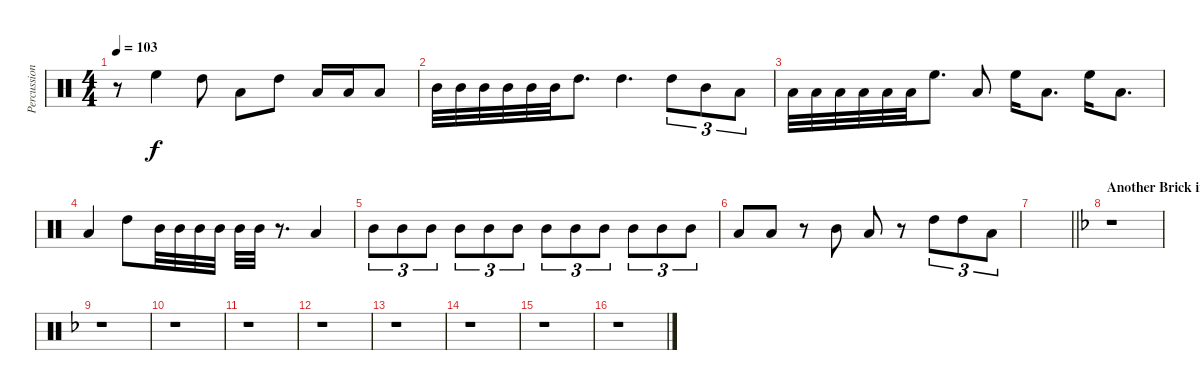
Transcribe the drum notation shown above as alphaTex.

\track ("Percussions 2" "Percussion") {instrument percussion}
\staff {score}
\articulation defaults
\ts (4 4)
\tempo 103
\clef neutral
\ks c
r.8{dy f} "High Floor Tom (hit)".4 "High Tom (hit)".8 "Low Tom (hit)".8 "High Tom (hit)".8 "Low Tom (hit)".16 "Low Tom (hit)".16 "Low Tom (hit)".8 |
"Mid Tom (hit)".32 "Mid Tom (hit)".32 "Mid Tom (hit)".32 "Mid Tom (hit)".32 "Mid Tom (hit)".32 "Mid Tom (hit)".32 "High Tom (hit)".8{d} "High Tom (hit)".4{d} "High Tom (hit)".8{tu (3 2)} "Mid Tom (hit)".8{tu (3 2)} "Low Tom (hit)".8{tu (3 2)} |
"Low Floor Tom (hit)".32 "Low Floor Tom (hit)".32 "Low Floor Tom (hit)".32 "Low Floor Tom (hit)".32 "Low Floor Tom (hit)".32 "Low Floor Tom (hit)".32 "High Floor Tom (hit)".8{d} "Low Tom (hit)".8 "High Floor Tom (hit)".16 "Low Tom (hit)".8{d} "High Floor Tom (hit)".16 "Low Tom (hit)".8{d} |
"Low Tom (hit)".4 "High Tom (hit)".8 "Mid Tom (hit)".32 "Mid Tom (hit)".32 "Mid Tom (hit)".32 "Mid Tom (hit)".32 "Mid Tom (hit)".32 "Mid Tom (hit)".32 r.8{d} "Low Tom (hit)".4 |
"Mid Tom (hit)".8{tu (3 2)} "Mid Tom (hit)".8{tu (3 2)} "Mid Tom (hit)".8{tu (3 2)} "Mid Tom (hit)".8{tu (3 2)} "Mid Tom (hit)".8{tu (3 2)} "Mid Tom (hit)".8{tu (3 2)} "Mid Tom (hit)".8{tu (3 2)} "Mid Tom (hit)".8{tu (3 2)} "Mid Tom (hit)".8{tu (3 2)} "Mid Tom (hit)".8{tu (3 2)} "Mid Tom (hit)".8{tu (3 2)} "Mid Tom (hit)".8{tu (3 2)} |
"Low Tom (hit)".8 "Low Tom (hit)".8 r.8 "Mid Tom (hit)".8 "Low Tom (hit)".8 r.8 "High Tom (hit)".8{tu (3 2)} "High Tom (hit)".8{tu (3 2)} "Low Tom (hit)".8{tu (3 2)} |
\barLineRight lightlight
|
\section ("" "Another Brick in the Wall. part 2")
\ks dminor
r.1 |
r.1 |
r.1 |
r.1 |
r.1 |
r.1 |
r.1 |
r.1 |
r.1
